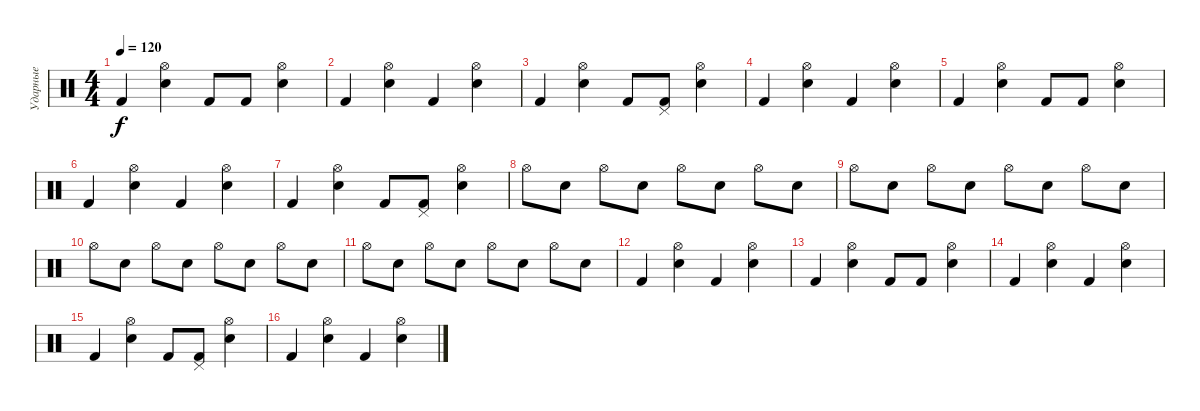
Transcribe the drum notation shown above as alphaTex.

\track ("Ударные" "Ударные") {instrument percussion}
\staff {score}
\articulation defaults
\ts (4 4)
\tempo 120
\clef neutral
\ks c "Kick (hit) 2".4{dy f}
("Hi-Hat (open)" "Electric Snare (hit)").4 "Kick (hit) 2".8 "Kick (hit) 2".8 ("Hi-Hat (open)" "Electric Snare (hit)").4 |
"Kick (hit) 2".4 ("Hi-Hat (open)" "Electric Snare (hit)").4 "Kick (hit) 2".4 ("Hi-Hat (open)" "Electric Snare (hit)").4 |
"Kick (hit) 2".4 ("Hi-Hat (open)" "Electric Snare (hit)").4 "Kick (hit) 2".8 ("Pedal Hi-Hat (hit)" "Kick (hit) 2").8 ("Hi-Hat (open)" "Electric Snare (hit)").4 |
"Kick (hit) 2".4 ("Hi-Hat (open)" "Electric Snare (hit)").4 "Kick (hit) 2".4 ("Hi-Hat (open)" "Electric Snare (hit)").4 |
"Kick (hit) 2".4 ("Hi-Hat (open)" "Electric Snare (hit)").4 "Kick (hit) 2".8 "Kick (hit) 2".8 ("Hi-Hat (open)" "Electric Snare (hit)").4 |
"Kick (hit) 2".4 ("Hi-Hat (open)" "Electric Snare (hit)").4 "Kick (hit) 2".4 ("Hi-Hat (open)" "Electric Snare (hit)").4 |
"Kick (hit) 2".4 ("Hi-Hat (open)" "Electric Snare (hit)").4 "Kick (hit) 2".8 ("Pedal Hi-Hat (hit)" "Kick (hit) 2").8 ("Hi-Hat (open)" "Electric Snare (hit)").4 |
"Hi-Hat (open)".8 "Electric Snare (hit)".8 "Hi-Hat (open)".8 "Electric Snare (hit)".8 "Hi-Hat (open)".8 "Electric Snare (hit)".8 "Hi-Hat (open)".8 "Electric Snare (hit)".8 |
"Hi-Hat (open)".8 "Electric Snare (hit)".8 "Hi-Hat (open)".8 "Electric Snare (hit)".8 "Hi-Hat (open)".8 "Electric Snare (hit)".8 "Hi-Hat (open)".8 "Electric Snare (hit)".8 |
"Hi-Hat (open)".8 "Electric Snare (hit)".8 "Hi-Hat (open)".8 "Electric Snare (hit)".8 "Hi-Hat (open)".8 "Electric Snare (hit)".8 "Hi-Hat (open)".8 "Electric Snare (hit)".8 |
"Hi-Hat (open)".8 "Electric Snare (hit)".8 "Hi-Hat (open)".8 "Electric Snare (hit)".8 "Hi-Hat (open)".8 "Electric Snare (hit)".8 "Hi-Hat (open)".8 "Electric Snare (hit)".8 |
"Kick (hit) 2".4 ("Hi-Hat (open)" "Electric Snare (hit)").4 "Kick (hit) 2".4 ("Hi-Hat (open)" "Electric Snare (hit)").4 |
"Kick (hit) 2".4 ("Hi-Hat (open)" "Electric Snare (hit)").4 "Kick (hit) 2".8 "Kick (hit) 2".8 ("Hi-Hat (open)" "Electric Snare (hit)").4 |
"Kick (hit) 2".4 ("Hi-Hat (open)" "Electric Snare (hit)").4 "Kick (hit) 2".4 ("Hi-Hat (open)" "Electric Snare (hit)").4 |
"Kick (hit) 2".4 ("Hi-Hat (open)" "Electric Snare (hit)").4 "Kick (hit) 2".8 ("Pedal Hi-Hat (hit)" "Kick (hit) 2").8 ("Hi-Hat (open)" "Electric Snare (hit)").4 |
"Kick (hit) 2".4 ("Hi-Hat (open)" "Electric Snare (hit)").4 "Kick (hit) 2".4 ("Hi-Hat (open)" "Electric Snare (hit)").4
